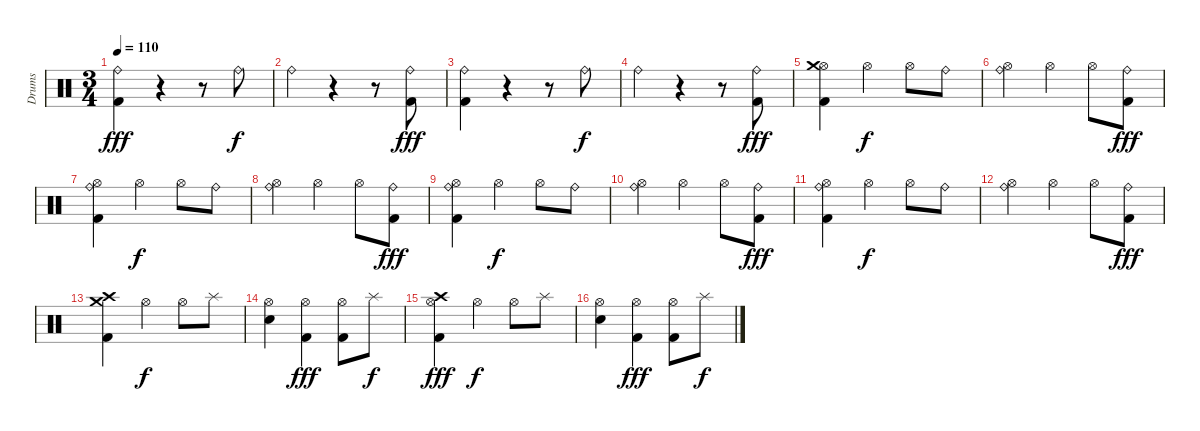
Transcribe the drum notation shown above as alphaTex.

\track ("Drums" "Drums") {instrument percussion}
\staff {score}
\articulation defaults
\ts (3 4)
\tempo 110
\clef neutral
\ks c
("Ride (bell)" "Kick (hit) 2").4{dy fff} r.4 r.8 "Ride (bell)".8{dy f} |
"Ride (bell)".4 r.4 r.8 ("Ride (bell)" "Kick (hit) 2").8{dy fff} |
("Ride (bell)" "Kick (hit) 2").4 r.4 r.8 "Ride (bell)".8{dy f} |
"Ride (bell)".4 r.4 r.8 ("Ride (bell)" "Kick (hit) 2").8{dy fff} |
("Hi-Hat (open)" "Crash medium (hit)" "Kick (hit) 2").4{volume 12} "Hi-Hat (open)".4{dy f} "Hi-Hat (open)".8 "Ride (bell)".8 |
("Hi-Hat (open)" "Ride (bell)").4 "Hi-Hat (open)".4 "Hi-Hat (open)".8 ("Ride (bell)" "Kick (hit) 2").8{dy fff} |
("Hi-Hat (open)" "Ride (bell)" "Kick (hit) 2").4 "Hi-Hat (open)".4{dy f} "Hi-Hat (open)".8 "Ride (bell)".8 |
("Hi-Hat (open)" "Ride (bell)").4 "Hi-Hat (open)".4 "Hi-Hat (open)".8 ("Ride (bell)" "Kick (hit) 2").8{dy fff} |
("Hi-Hat (open)" "Ride (bell)" "Kick (hit) 2").4 "Hi-Hat (open)".4{dy f} "Hi-Hat (open)".8 "Ride (bell)".8 |
("Hi-Hat (open)" "Ride (bell)").4 "Hi-Hat (open)".4 "Hi-Hat (open)".8 ("Ride (bell)" "Kick (hit) 2").8{dy fff} |
("Hi-Hat (open)" "Ride (bell)" "Kick (hit) 2").4 "Hi-Hat (open)".4{dy f} "Hi-Hat (open)".8 "Ride (bell)".8 |
("Hi-Hat (open)" "Ride (bell)").4 "Hi-Hat (open)".4 "Hi-Hat (open)".8 ("Ride (bell)" "Kick (hit) 2").8{dy fff} |
("Crash medium (hit)" "Crash high (hit)" "Kick (hit) 2").4{volume 15} "Hi-Hat (open)".4{dy f} "Hi-Hat (open)".8 "Splash (hit)".8 |
("Hi-Hat (open)" "Snare (hit) 2").4 ("Hi-Hat (open)" "Kick (hit) 2").4{dy fff} ("Hi-Hat (open)" "Kick (hit) 2").8 "Splash (hit)".8{dy f} |
("Hi-Hat (open)" "Crash high (hit)" "Kick (hit) 2").4{dy fff} "Hi-Hat (open)".4{dy f} "Hi-Hat (open)".8 "Splash (hit)".8 |
("Hi-Hat (open)" "Snare (hit) 2").4 ("Hi-Hat (open)" "Kick (hit) 2").4{dy fff} ("Hi-Hat (open)" "Kick (hit) 2").8 "Splash (hit)".8{dy f}
